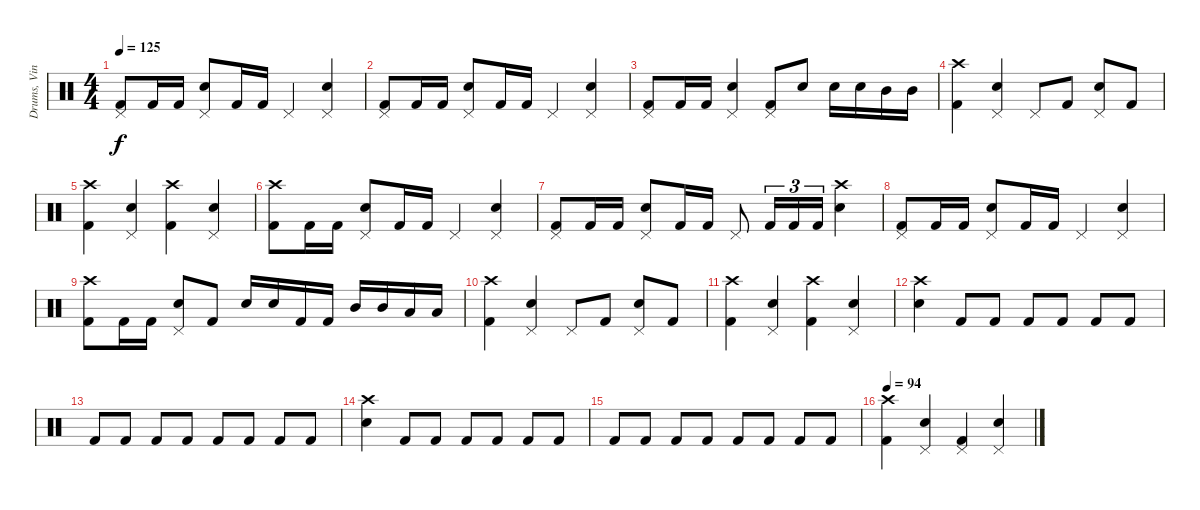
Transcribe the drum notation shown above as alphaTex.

\track ("Drums, Vinnie" "Drums, Vin") {instrument percussion}
\staff {score}
\articulation defaults
\ts (4 4)
\tempo 125
\clef neutral
\ks c
("Pedal Hi-Hat (hit)" "Kick (hit) 2").8{dy f} "Kick (hit) 2".16 "Kick (hit) 2".16 ("Pedal Hi-Hat (hit)" "Electric Snare (hit)").8 "Kick (hit) 2".16 "Kick (hit) 2".16 "Pedal Hi-Hat (hit)".4 ("Pedal Hi-Hat (hit)" "Electric Snare (hit)").4 |
("Pedal Hi-Hat (hit)" "Kick (hit) 2").8 "Kick (hit) 2".16 "Kick (hit) 2".16 ("Pedal Hi-Hat (hit)" "Electric Snare (hit)").8 "Kick (hit) 2".16 "Kick (hit) 2".16 "Pedal Hi-Hat (hit)".4 ("Pedal Hi-Hat (hit)" "Electric Snare (hit)").4 |
("Pedal Hi-Hat (hit)" "Kick (hit) 2").8 "Kick (hit) 2".16 "Kick (hit) 2".16 ("Pedal Hi-Hat (hit)" "Electric Snare (hit)").4 ("Pedal Hi-Hat (hit)" "Kick (hit) 2").8 "Electric Snare (hit)".8 "Electric Snare (hit)".16 "Electric Snare (hit)".16 "Mid Tom (hit)".16 "Mid Tom (hit)".16 |
("Crash high (hit)" "Kick (hit) 2").4 ("Pedal Hi-Hat (hit)" "Electric Snare (hit)").4 "Pedal Hi-Hat (hit)".8 "Kick (hit) 2".8 ("Pedal Hi-Hat (hit)" "Electric Snare (hit)").8 "Kick (hit) 2".8 |
("Crash high (hit)" "Kick (hit) 2").4 ("Pedal Hi-Hat (hit)" "Electric Snare (hit)").4 ("Crash high (hit)" "Kick (hit) 2").4 ("Pedal Hi-Hat (hit)" "Electric Snare (hit)").4 |
("Crash high (hit)" "Kick (hit) 2").8 "Kick (hit) 2".16 "Kick (hit) 2".16 ("Pedal Hi-Hat (hit)" "Electric Snare (hit)").8 "Kick (hit) 2".16 "Kick (hit) 2".16 "Pedal Hi-Hat (hit)".4 ("Pedal Hi-Hat (hit)" "Electric Snare (hit)").4 |
("Pedal Hi-Hat (hit)" "Kick (hit) 2").8 "Kick (hit) 2".16 "Kick (hit) 2".16 ("Pedal Hi-Hat (hit)" "Electric Snare (hit)").8 "Kick (hit) 2".16 "Kick (hit) 2".16 "Pedal Hi-Hat (hit)".8 "Kick (hit) 2".16{tu (3 2)} "Kick (hit) 2".16{tu (3 2)} "Kick (hit) 2".16{tu (3 2)} ("Crash high (hit)" "Electric Snare (hit)").4 |
("Pedal Hi-Hat (hit)" "Kick (hit) 2").8 "Kick (hit) 2".16 "Kick (hit) 2".16 ("Pedal Hi-Hat (hit)" "Electric Snare (hit)").8 "Kick (hit) 2".16 "Kick (hit) 2".16 "Pedal Hi-Hat (hit)".4 ("Pedal Hi-Hat (hit)" "Electric Snare (hit)").4 |
("Crash high (hit)" "Kick (hit) 2").8 "Kick (hit) 2".16 "Kick (hit) 2".16 ("Pedal Hi-Hat (hit)" "Electric Snare (hit)").8 "Kick (hit) 2".8 "Electric Snare (hit)".16 "Electric Snare (hit)".16 "Kick (hit) 2".16 "Kick (hit) 2".16 "Mid Tom (hit)".16 "Mid Tom (hit)".16 "Low Tom (hit)".16 "Low Tom (hit)".16 |
("Crash high (hit)" "Kick (hit) 2").4 ("Pedal Hi-Hat (hit)" "Electric Snare (hit)").4 "Pedal Hi-Hat (hit)".8 "Kick (hit) 2".8 ("Pedal Hi-Hat (hit)" "Electric Snare (hit)").8 "Kick (hit) 2".8 |
("Crash high (hit)" "Kick (hit) 2").4 ("Pedal Hi-Hat (hit)" "Electric Snare (hit)").4 ("Crash high (hit)" "Kick (hit) 2").4 ("Pedal Hi-Hat (hit)" "Electric Snare (hit)").4 |
("Crash high (hit)" "Electric Snare (hit)").4 "Kick (hit) 2".8 "Kick (hit) 2".8 "Kick (hit) 2".8 "Kick (hit) 2".8 "Kick (hit) 2".8 "Kick (hit) 2".8 |
"Kick (hit) 2".8 "Kick (hit) 2".8 "Kick (hit) 2".8 "Kick (hit) 2".8 "Kick (hit) 2".8 "Kick (hit) 2".8 "Kick (hit) 2".8 "Kick (hit) 2".8 |
("Crash high (hit)" "Electric Snare (hit)").4 "Kick (hit) 2".8 "Kick (hit) 2".8 "Kick (hit) 2".8 "Kick (hit) 2".8 "Kick (hit) 2".8 "Kick (hit) 2".8 |
"Kick (hit) 2".8 "Kick (hit) 2".8 "Kick (hit) 2".8 "Kick (hit) 2".8 "Kick (hit) 2".8 "Kick (hit) 2".8 "Kick (hit) 2".8 "Kick (hit) 2".8 |
\tempo 94
("Crash high (hit)" "Kick (hit) 2").4 ("Pedal Hi-Hat (hit)" "Electric Snare (hit)").4 ("Pedal Hi-Hat (hit)" "Kick (hit) 2").4 ("Pedal Hi-Hat (hit)" "Electric Snare (hit)").4
